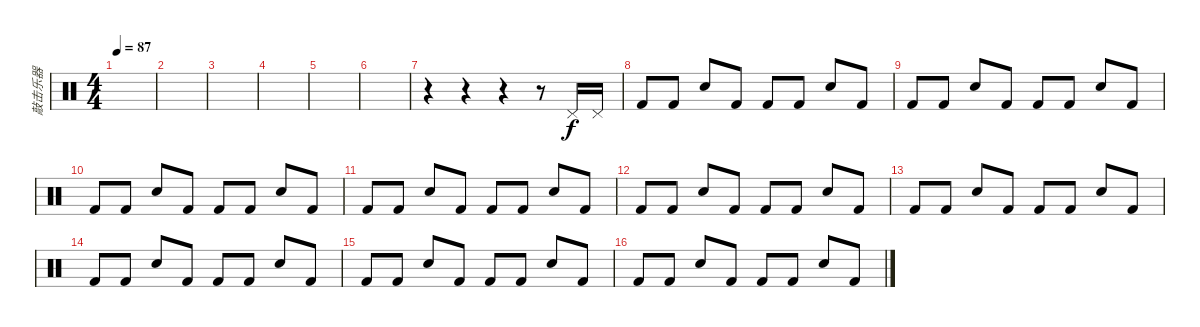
\track ("敲击乐器" "敲击乐器") {instrument percussion}
\staff {score}
\articulation defaults
\ts (4 4)
\tempo 87
\clef neutral
\ks c
|
|
|
|
|
|
r.4 r.4 r.4 r.8 "Pedal Hi-Hat (hit)".16 "Pedal Hi-Hat (hit)".16 |
"Kick (hit) 2".8 "Kick (hit) 2".8 "Snare (hit) 2".8 "Kick (hit) 2".8 "Kick (hit) 2".8 "Kick (hit) 2".8 "Snare (hit) 2".8 "Kick (hit) 2".8 |
"Kick (hit) 2".8 "Kick (hit) 2".8 "Snare (hit) 2".8 "Kick (hit) 2".8 "Kick (hit) 2".8 "Kick (hit) 2".8 "Snare (hit) 2".8 "Kick (hit) 2".8 |
"Kick (hit) 2".8 "Kick (hit) 2".8 "Snare (hit) 2".8 "Kick (hit) 2".8 "Kick (hit) 2".8 "Kick (hit) 2".8 "Snare (hit) 2".8 "Kick (hit) 2".8 |
"Kick (hit) 2".8 "Kick (hit) 2".8 "Snare (hit) 2".8 "Kick (hit) 2".8 "Kick (hit) 2".8 "Kick (hit) 2".8 "Snare (hit) 2".8 "Kick (hit) 2".8 |
"Kick (hit) 2".8 "Kick (hit) 2".8 "Snare (hit) 2".8 "Kick (hit) 2".8 "Kick (hit) 2".8 "Kick (hit) 2".8 "Snare (hit) 2".8 "Kick (hit) 2".8 |
"Kick (hit) 2".8 "Kick (hit) 2".8 "Snare (hit) 2".8 "Kick (hit) 2".8 "Kick (hit) 2".8 "Kick (hit) 2".8 "Snare (hit) 2".8 "Kick (hit) 2".8 |
"Kick (hit) 2".8 "Kick (hit) 2".8 "Snare (hit) 2".8 "Kick (hit) 2".8 "Kick (hit) 2".8 "Kick (hit) 2".8 "Snare (hit) 2".8 "Kick (hit) 2".8 |
"Kick (hit) 2".8 "Kick (hit) 2".8 "Snare (hit) 2".8 "Kick (hit) 2".8 "Kick (hit) 2".8 "Kick (hit) 2".8 "Snare (hit) 2".8 "Kick (hit) 2".8 |
"Kick (hit) 2".8 "Kick (hit) 2".8 "Snare (hit) 2".8 "Kick (hit) 2".8 "Kick (hit) 2".8 "Kick (hit) 2".8 "Snare (hit) 2".8 "Kick (hit) 2".8
